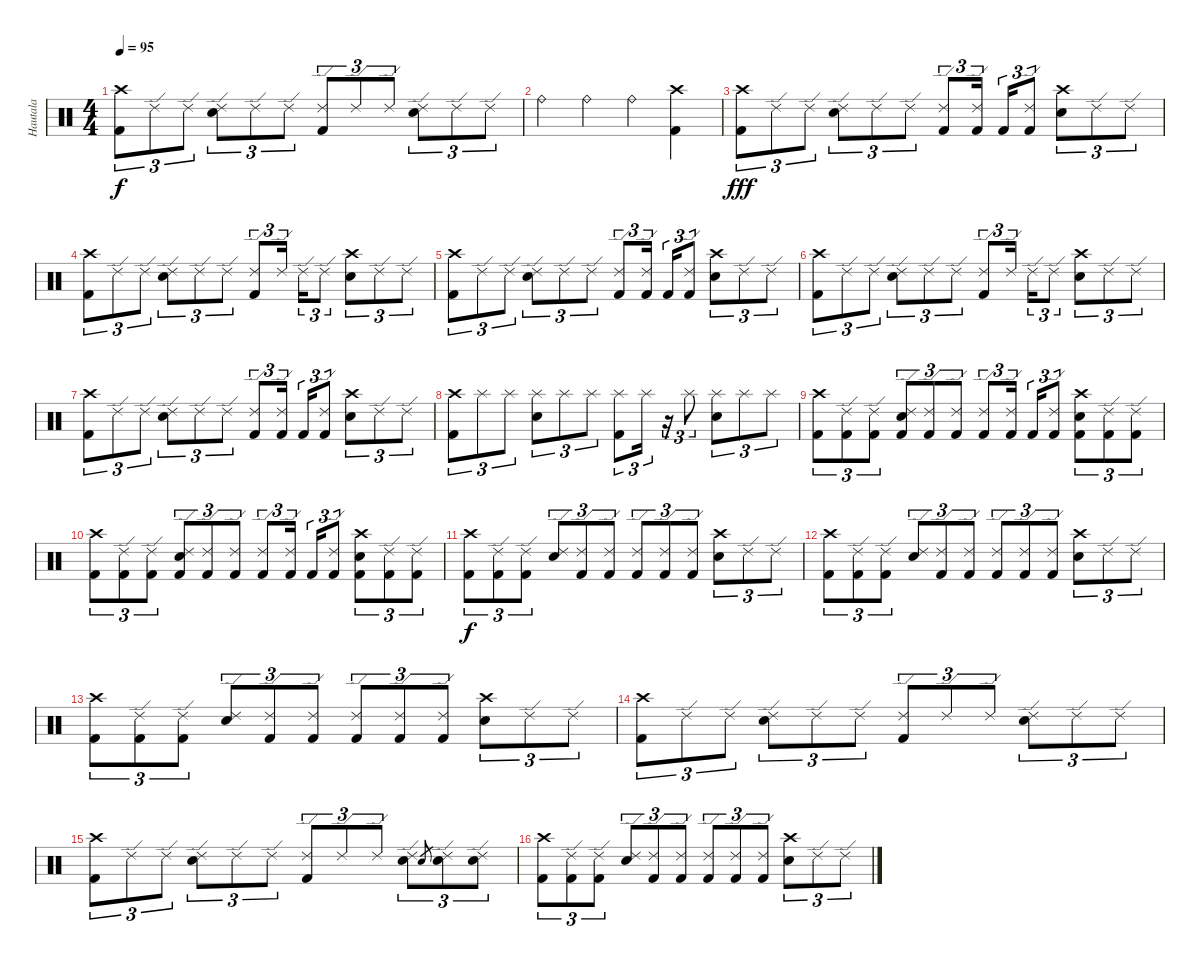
\track ("Hautala" "Hautala") {instrument percussion}
\staff {score}
\articulation defaults
\ts (4 4)
\tempo 95
\clef neutral
\ks c
("Crash high (hit)" "Kick (hit) 2").8{tu (3 2) dy f} "Ride (edge) 2".8{tu (3 2)} "Ride (edge) 2".8{tu (3 2)} ("Ride (edge) 2" "Snare (hit) 2").8{tu (3 2)} "Ride (edge) 2".8{tu (3 2)} "Ride (edge) 2".8{tu (3 2)} ("Ride (edge) 2" "Kick (hit) 2").8{tu (3 2)} "Ride (edge) 2".8{tu (3 2)} "Ride (edge) 2".8{tu (3 2)} ("Ride (edge) 2" "Snare (hit) 2").8{tu (3 2)} "Ride (edge) 2".8{tu (3 2)} "Ride (edge) 2".8{tu (3 2)} |
"Ride (bell)".4 "Ride (bell)".4 "Ride (bell)".4 ("Crash high (hit)" "Kick (hit) 2").4 |
("Crash high (hit)" "Kick (hit) 2").8{tu (3 2) dy fff} "Ride (edge) 2".8{tu (3 2)} "Ride (edge) 2".8{tu (3 2)} ("Ride (edge) 2" "Snare (hit) 2").8{tu (3 2)} "Ride (edge) 2".8{tu (3 2)} "Ride (edge) 2".8{tu (3 2)} ("Ride (edge) 2" "Kick (hit) 2").8{tu (3 2)} ("Ride (edge) 2" "Kick (hit) 2").16{tu (3 2) beam splitsecondary} "Kick (hit) 2".16{tu (3 2)} ("Ride (edge) 2" "Kick (hit) 2").8{tu (3 2)} ("Crash high (hit)" "Electric Snare (hit)").8{tu (3 2)} "Ride (edge) 2".8{tu (3 2)} "Ride (edge) 2".8{tu (3 2)} |
("Crash high (hit)" "Kick (hit) 2").8{tu (3 2)} "Ride (edge) 2".8{tu (3 2)} "Ride (edge) 2".8{tu (3 2)} ("Ride (edge) 2" "Snare (hit) 2").8{tu (3 2)} "Ride (edge) 2".8{tu (3 2)} "Ride (edge) 2".8{tu (3 2)} ("Ride (edge) 2" "Kick (hit) 2").8{tu (3 2)} "Ride (edge) 2".16{tu (3 2) beam splitsecondary} "Ride (edge) 2".16{tu (3 2)} "Ride (edge) 2".8{tu (3 2)} ("Crash high (hit)" "Electric Snare (hit)").8{tu (3 2)} "Ride (edge) 2".8{tu (3 2)} "Ride (edge) 2".8{tu (3 2)} |
("Crash high (hit)" "Kick (hit) 2").8{tu (3 2)} "Ride (edge) 2".8{tu (3 2)} "Ride (edge) 2".8{tu (3 2)} ("Ride (edge) 2" "Snare (hit) 2").8{tu (3 2)} "Ride (edge) 2".8{tu (3 2)} "Ride (edge) 2".8{tu (3 2)} ("Ride (edge) 2" "Kick (hit) 2").8{tu (3 2)} ("Ride (edge) 2" "Kick (hit) 2").16{tu (3 2) beam splitsecondary} "Kick (hit) 2".16{tu (3 2)} ("Ride (edge) 2" "Kick (hit) 2").8{tu (3 2)} ("Crash high (hit)" "Electric Snare (hit)").8{tu (3 2)} "Ride (edge) 2".8{tu (3 2)} "Ride (edge) 2".8{tu (3 2)} |
("Crash high (hit)" "Kick (hit) 2").8{tu (3 2)} "Ride (edge) 2".8{tu (3 2)} "Ride (edge) 2".8{tu (3 2)} ("Ride (edge) 2" "Snare (hit) 2").8{tu (3 2)} "Ride (edge) 2".8{tu (3 2)} "Ride (edge) 2".8{tu (3 2)} ("Ride (edge) 2" "Kick (hit) 2").8{tu (3 2)} "Ride (edge) 2".16{tu (3 2) beam splitsecondary} "Ride (edge) 2".16{tu (3 2)} "Ride (edge) 2".8{tu (3 2)} ("Crash high (hit)" "Electric Snare (hit)").8{tu (3 2)} "Ride (edge) 2".8{tu (3 2)} "Ride (edge) 2".8{tu (3 2)} |
("Crash high (hit)" "Kick (hit) 2").8{tu (3 2)} "Ride (edge) 2".8{tu (3 2)} "Ride (edge) 2".8{tu (3 2)} ("Ride (edge) 2" "Snare (hit) 2").8{tu (3 2)} "Ride (edge) 2".8{tu (3 2)} "Ride (edge) 2".8{tu (3 2)} ("Ride (edge) 2" "Kick (hit) 2").8{tu (3 2)} ("Ride (edge) 2" "Kick (hit) 2").16{tu (3 2) beam splitsecondary} "Kick (hit) 2".16{tu (3 2)} ("Ride (edge) 2" "Kick (hit) 2").8{tu (3 2)} ("Crash high (hit)" "Electric Snare (hit)").8{tu (3 2)} "Ride (edge) 2".8{tu (3 2)} "Ride (edge) 2".8{tu (3 2)} |
("Crash high (hit)" "Kick (hit) 2").8{tu (3 2)} "Splash (hit)".8{tu (3 2)} "Splash (hit)".8{tu (3 2)} ("Splash (hit)" "Snare (hit) 2").8{tu (3 2)} "Splash (hit)".8{tu (3 2)} "Splash (hit)".8{tu (3 2)} ("Splash (hit)" "Kick (hit) 2").8{tu (3 2)} "Splash (hit)".16{tu (3 2)} r.16{tu (3 2)} "Splash (hit)".8{tu (3 2)} ("Splash (hit)" "Electric Snare (hit)").8{tu (3 2)} "Splash (hit)".8{tu (3 2)} "Splash (hit)".8{tu (3 2)} |
("Crash high (hit)" "Kick (hit) 2").8{tu (3 2)} ("Ride (edge) 2" "Kick (hit) 2").8{tu (3 2)} ("Ride (edge) 2" "Kick (hit) 2").8{tu (3 2)} ("Ride (edge) 2" "Snare (hit) 2" "Kick (hit) 2").8{tu (3 2)} ("Ride (edge) 2" "Kick (hit) 2").8{tu (3 2)} ("Ride (edge) 2" "Kick (hit) 2").8{tu (3 2)} ("Ride (edge) 2" "Kick (hit) 2").8{tu (3 2)} ("Ride (edge) 2" "Kick (hit) 2").16{tu (3 2) beam splitsecondary} "Kick (hit) 2".16{tu (3 2)} ("Ride (edge) 2" "Kick (hit) 2").8{tu (3 2)} ("Crash high (hit)" "Electric Snare (hit)" "Kick (hit) 2").8{tu (3 2)} ("Ride (edge) 2" "Kick (hit) 2").8{tu (3 2)} ("Ride (edge) 2" "Kick (hit) 2").8{tu (3 2)} |
("Crash high (hit)" "Kick (hit) 2").8{tu (3 2)} ("Ride (edge) 2" "Kick (hit) 2").8{tu (3 2)} ("Ride (edge) 2" "Kick (hit) 2").8{tu (3 2)} ("Ride (edge) 2" "Snare (hit) 2" "Kick (hit) 2").8{tu (3 2)} ("Ride (edge) 2" "Kick (hit) 2").8{tu (3 2)} ("Ride (edge) 2" "Kick (hit) 2").8{tu (3 2)} ("Ride (edge) 2" "Kick (hit) 2").8{tu (3 2)} ("Ride (edge) 2" "Kick (hit) 2").16{tu (3 2) beam splitsecondary} "Kick (hit) 2".16{tu (3 2)} ("Ride (edge) 2" "Kick (hit) 2").8{tu (3 2)} ("Crash high (hit)" "Electric Snare (hit)" "Kick (hit) 2").8{tu (3 2)} ("Ride (edge) 2" "Kick (hit) 2").8{tu (3 2)} ("Ride (edge) 2" "Kick (hit) 2").8{tu (3 2)} |
("Crash high (hit)" "Kick (hit) 2").8{tu (3 2) dy f} ("Ride (edge) 2" "Kick (hit) 2").8{tu (3 2)} ("Ride (edge) 2" "Kick (hit) 2").8{tu (3 2)} ("Ride (edge) 2" "Snare (hit) 2").8{tu (3 2)} ("Ride (edge) 2" "Kick (hit) 2").8{tu (3 2)} ("Ride (edge) 2" "Kick (hit) 2").8{tu (3 2)} ("Ride (edge) 2" "Kick (hit) 2").8{tu (3 2)} ("Ride (edge) 2" "Kick (hit) 2").8{tu (3 2)} ("Ride (edge) 2" "Kick (hit) 2").8{tu (3 2)} ("Crash high (hit)" "Snare (hit) 2").8{tu (3 2)} "Ride (edge) 2".8{tu (3 2)} "Ride (edge) 2".8{tu (3 2)} |
("Crash high (hit)" "Kick (hit) 2").8{tu (3 2)} ("Ride (edge) 2" "Kick (hit) 2").8{tu (3 2)} ("Ride (edge) 2" "Kick (hit) 2").8{tu (3 2)} ("Ride (edge) 2" "Snare (hit) 2").8{tu (3 2)} ("Ride (edge) 2" "Kick (hit) 2").8{tu (3 2)} ("Ride (edge) 2" "Kick (hit) 2").8{tu (3 2)} ("Ride (edge) 2" "Kick (hit) 2").8{tu (3 2)} ("Ride (edge) 2" "Kick (hit) 2").8{tu (3 2)} ("Ride (edge) 2" "Kick (hit) 2").8{tu (3 2)} ("Crash high (hit)" "Snare (hit) 2").8{tu (3 2)} "Ride (edge) 2".8{tu (3 2)} "Ride (edge) 2".8{tu (3 2)} |
("Crash high (hit)" "Kick (hit) 2").8{tu (3 2)} ("Ride (edge) 2" "Kick (hit) 2").8{tu (3 2)} ("Ride (edge) 2" "Kick (hit) 2").8{tu (3 2)} ("Ride (edge) 2" "Snare (hit) 2").8{tu (3 2)} ("Ride (edge) 2" "Kick (hit) 2").8{tu (3 2)} ("Ride (edge) 2" "Kick (hit) 2").8{tu (3 2)} ("Ride (edge) 2" "Kick (hit) 2").8{tu (3 2)} ("Ride (edge) 2" "Kick (hit) 2").8{tu (3 2)} ("Ride (edge) 2" "Kick (hit) 2").8{tu (3 2)} ("Crash high (hit)" "Snare (hit) 2").8{tu (3 2)} "Ride (edge) 2".8{tu (3 2)} "Ride (edge) 2".8{tu (3 2)} |
("Crash high (hit)" "Kick (hit) 2").8{tu (3 2)} "Ride (edge) 2".8{tu (3 2)} "Ride (edge) 2".8{tu (3 2)} ("Ride (edge) 2" "Snare (hit) 2").8{tu (3 2)} "Ride (edge) 2".8{tu (3 2)} "Ride (edge) 2".8{tu (3 2)} ("Ride (edge) 2" "Kick (hit) 2").8{tu (3 2)} "Ride (edge) 2".8{tu (3 2)} "Ride (edge) 2".8{tu (3 2)} ("Ride (edge) 2" "Snare (hit) 2").8{tu (3 2)} "Ride (edge) 2".8{tu (3 2)} "Ride (edge) 2".8{tu (3 2)} |
("Crash high (hit)" "Kick (hit) 2").8{tu (3 2)} "Ride (edge) 2".8{tu (3 2)} "Ride (edge) 2".8{tu (3 2)} ("Ride (edge) 2" "Snare (hit) 2").8{tu (3 2)} "Ride (edge) 2".8{tu (3 2)} "Ride (edge) 2".8{tu (3 2)} ("Ride (edge) 2" "Kick (hit) 2").8{tu (3 2)} "Ride (edge) 2".8{tu (3 2)} "Ride (edge) 2".8{tu (3 2)} ("Ride (edge) 2" "Snare (hit) 2").8{tu (3 2)} "Electric Snare (hit)".8{gr} ("Ride (edge) 2" "Electric Snare (hit)").8{tu (3 2)} ("Ride (edge) 2" "Electric Snare (hit)").8{tu (3 2)} |
("Crash high (hit)" "Kick (hit) 2").8{tu (3 2)} ("Ride (edge) 2" "Kick (hit) 2").8{tu (3 2)} ("Ride (edge) 2" "Kick (hit) 2").8{tu (3 2)} ("Ride (edge) 2" "Snare (hit) 2").8{tu (3 2)} ("Ride (edge) 2" "Kick (hit) 2").8{tu (3 2)} ("Ride (edge) 2" "Kick (hit) 2").8{tu (3 2)} ("Ride (edge) 2" "Kick (hit) 2").8{tu (3 2)} ("Ride (edge) 2" "Kick (hit) 2").8{tu (3 2)} ("Ride (edge) 2" "Kick (hit) 2").8{tu (3 2)} ("Crash high (hit)" "Snare (hit) 2").8{tu (3 2)} "Ride (edge) 2".8{tu (3 2)} "Ride (edge) 2".8{tu (3 2)}
